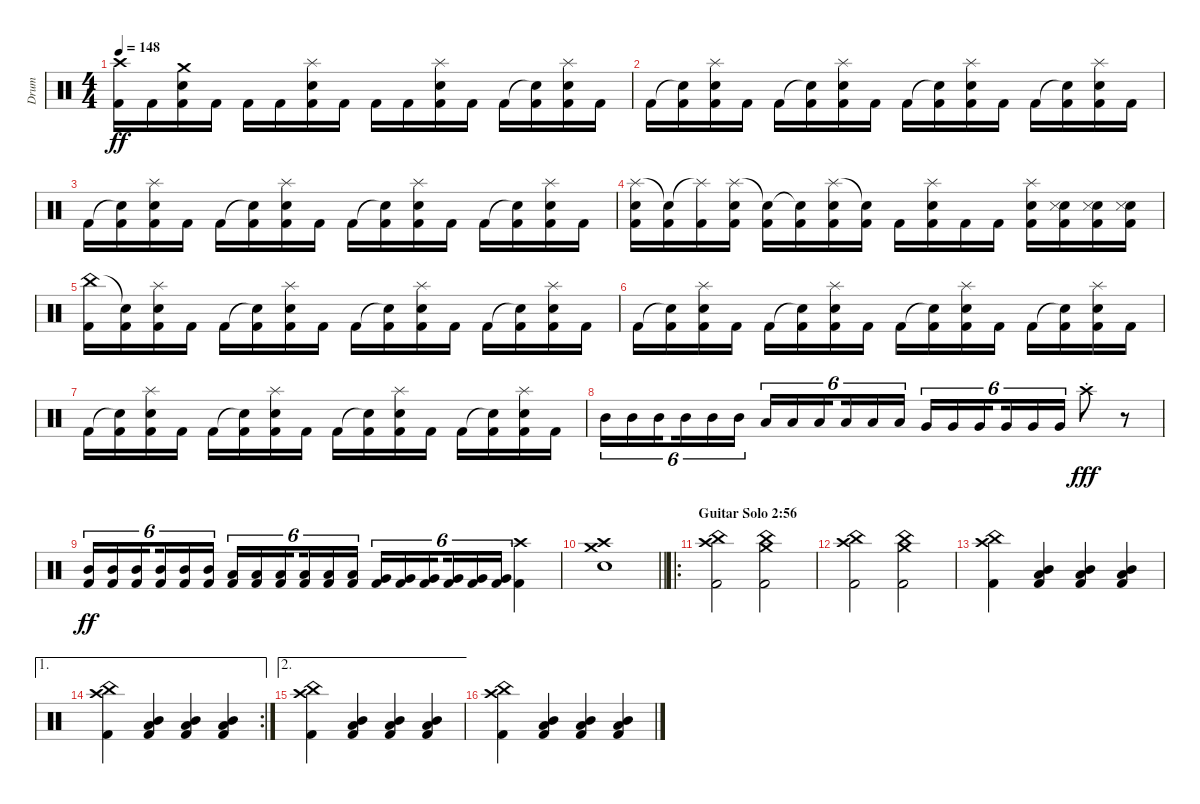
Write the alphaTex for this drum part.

\track ("Drum" "Drum") {instrument percussion}
\staff {score}
\articulation defaults
\ts (4 4)
\tempo 148
\clef neutral
\ks c
("Crash high (hit)" "Kick (hit) 2").16{dy ff} "Kick (hit) 2".16 ("Crash medium (hit)" "Snare (hit) 2" "Kick (hit) 2").16 "Kick (hit) 2".16 "Kick (hit) 2".16 "Kick (hit) 2".16 ("Splash (hit)" "Snare (hit) 2" "Kick (hit) 2").16 "Kick (hit) 2".16 "Kick (hit) 2".16 "Kick (hit) 2".16 ("Splash (hit)" "Snare (hit) 2" "Kick (hit) 2").16 "Kick (hit) 2".16 "Kick (hit) 2".16 ("Snare (hit)"{t} "Kick (hit) 2").16 ("Splash (hit)" "Snare (hit) 2" "Kick (hit) 2").16 "Kick (hit) 2".16 |
"Kick (hit) 2".16 ("Snare (hit)"{t} "Kick (hit) 2").16 ("Splash (hit)" "Snare (hit) 2" "Kick (hit) 2").16 "Kick (hit) 2".16 "Kick (hit) 2".16 ("Snare (hit)"{t} "Kick (hit) 2").16 ("Splash (hit)" "Snare (hit) 2" "Kick (hit) 2").16 "Kick (hit) 2".16 "Kick (hit) 2".16 ("Snare (hit)"{t} "Kick (hit) 2").16 ("Splash (hit)" "Snare (hit) 2" "Kick (hit) 2").16 "Kick (hit) 2".16 "Kick (hit) 2".16 ("Snare (hit)"{t} "Kick (hit) 2").16 ("Splash (hit)" "Snare (hit) 2" "Kick (hit) 2").16 "Kick (hit) 2".16 |
"Kick (hit) 2".16 ("Snare (hit)"{t} "Kick (hit) 2").16 ("Splash (hit)" "Snare (hit) 2" "Kick (hit) 2").16 "Kick (hit) 2".16 "Kick (hit) 2".16 ("Snare (hit)"{t} "Kick (hit) 2").16 ("Splash (hit)" "Snare (hit) 2" "Kick (hit) 2").16 "Kick (hit) 2".16 "Kick (hit) 2".16 ("Snare (hit)"{t} "Kick (hit) 2").16 ("Splash (hit)" "Snare (hit) 2" "Kick (hit) 2").16 "Kick (hit) 2".16 "Kick (hit) 2".16 ("Snare (hit)"{t} "Kick (hit) 2").16 ("Splash (hit)" "Snare (hit) 2" "Kick (hit) 2").16 "Kick (hit) 2".16 |
("Splash (hit)" "Snare (hit) 2" "Kick (hit) 2").16 ("Snare (hit)"{t} "Kick (hit) 2").16 ("Splash (hit)"{t} "Kick (hit) 2").16 ("Splash (hit)" "Snare (hit) 2" "Kick (hit) 2").16 ("Snare (hit)"{t} "Kick (hit) 2").16 ("Snare (hit)"{t} "Kick (hit) 2").16 ("Splash (hit)" "Snare (hit) 2" "Kick (hit) 2").16 ("Snare (hit)"{t} "Kick (hit) 2").16 "Kick (hit) 2".16 ("Splash (hit)" "Snare (hit) 2" "Kick (hit) 2").16 "Kick (hit) 2".16 "Kick (hit) 2".16 ("Splash (hit)" "Snare (hit) 2" "Kick (hit) 2").16 ("Snare (hit) 2" "Metronome (hit)" "Kick (hit) 2").16 ("Snare (hit) 2" "Metronome (hit)" "Kick (hit) 2").16 ("Snare (hit) 2" "Metronome (hit)" "Kick (hit) 2").16 |
("China (hit)" "Kick (hit) 2").16 ("Snare (hit)"{t} "Kick (hit) 2").16 ("Splash (hit)" "Snare (hit) 2" "Kick (hit) 2").16 "Kick (hit) 2".16 "Kick (hit) 2".16 ("Snare (hit)"{t} "Kick (hit) 2").16 ("Splash (hit)" "Snare (hit) 2" "Kick (hit) 2").16 "Kick (hit) 2".16 "Kick (hit) 2".16 ("Snare (hit)"{t} "Kick (hit) 2").16 ("Splash (hit)" "Snare (hit) 2" "Kick (hit) 2").16 "Kick (hit) 2".16 "Kick (hit) 2".16 ("Snare (hit)"{t} "Kick (hit) 2").16 ("Splash (hit)" "Snare (hit) 2" "Kick (hit) 2").16 "Kick (hit) 2".16 |
"Kick (hit) 2".16 ("Snare (hit)"{t} "Kick (hit) 2").16 ("Splash (hit)" "Snare (hit) 2" "Kick (hit) 2").16 "Kick (hit) 2".16 "Kick (hit) 2".16 ("Snare (hit)"{t} "Kick (hit) 2").16 ("Splash (hit)" "Snare (hit) 2" "Kick (hit) 2").16 "Kick (hit) 2".16 "Kick (hit) 2".16 ("Snare (hit)"{t} "Kick (hit) 2").16 ("Splash (hit)" "Snare (hit) 2" "Kick (hit) 2").16 "Kick (hit) 2".16 "Kick (hit) 2".16 ("Snare (hit)"{t} "Kick (hit) 2").16 ("Splash (hit)" "Snare (hit) 2" "Kick (hit) 2").16 "Kick (hit) 2".16 |
"Kick (hit) 2".16 ("Snare (hit)"{t} "Kick (hit) 2").16 ("Splash (hit)" "Snare (hit) 2" "Kick (hit) 2").16 "Kick (hit) 2".16 "Kick (hit) 2".16 ("Snare (hit)"{t} "Kick (hit) 2").16 ("Splash (hit)" "Snare (hit) 2" "Kick (hit) 2").16 "Kick (hit) 2".16 "Kick (hit) 2".16 ("Snare (hit)"{t} "Kick (hit) 2").16 ("Splash (hit)" "Snare (hit) 2" "Kick (hit) 2").16 "Kick (hit) 2".16 "Kick (hit) 2".16 ("Snare (hit)"{t} "Kick (hit) 2").16 ("Splash (hit)" "Snare (hit) 2" "Kick (hit) 2").16 "Kick (hit) 2".16 |
"Mid Tom (hit)".16{tu (6 4)} "Mid Tom (hit)".16{tu (6 4)} "Mid Tom (hit)".16{tu (6 4) beam splitsecondary} "Mid Tom (hit)".16{tu (6 4)} "Mid Tom (hit)".16{tu (6 4)} "Mid Tom (hit)".16{tu (6 4)} "Low Tom (hit)".16{tu (6 4)} "Low Tom (hit)".16{tu (6 4)} "Low Tom (hit)".16{tu (6 4) beam splitsecondary} "Low Tom (hit)".16{tu (6 4)} "Low Tom (hit)".16{tu (6 4)} "Low Tom (hit)".16{tu (6 4)} "Very Low Tom (hit)".16{tu (6 4)} "Very Low Tom (hit)".16{tu (6 4)} "Very Low Tom (hit)".16{tu (6 4) beam splitsecondary} "Very Low Tom (hit)".16{tu (6 4)} "Very Low Tom (hit)".16{tu (6 4)} "Very Low Tom (hit)".16{tu (6 4)} "Crash high (hit)"{st}.8{dy fff} r.8 |
("Kick (hit) 2" "Mid Tom (hit)").16{tu (6 4) dy ff} ("Kick (hit) 2" "Mid Tom (hit)").16{tu (6 4)} ("Kick (hit) 2" "Mid Tom (hit)").16{tu (6 4) beam splitsecondary} ("Kick (hit) 2" "Mid Tom (hit)").16{tu (6 4)} ("Kick (hit) 2" "Mid Tom (hit)").16{tu (6 4)} ("Kick (hit) 2" "Mid Tom (hit)").16{tu (6 4)} ("Kick (hit) 2" "Low Tom (hit)").16{tu (6 4)} ("Kick (hit) 2" "Low Tom (hit)").16{tu (6 4)} ("Kick (hit) 2" "Low Tom (hit)").16{tu (6 4) beam splitsecondary} ("Kick (hit) 2" "Low Tom (hit)").16{tu (6 4)} ("Kick (hit) 2" "Low Tom (hit)").16{tu (6 4)} ("Kick (hit) 2" "Low Tom (hit)").16{tu (6 4)} ("Kick (hit) 2" "Very Low Tom (hit)").16{tu (6 4)} ("Kick (hit) 2" "Very Low Tom (hit)").16{tu (6 4)} ("Kick (hit) 2" "Very Low Tom (hit)").16{tu (6 4) beam splitsecondary} ("Kick (hit) 2" "Very Low Tom (hit)").16{tu (6 4)} ("Kick (hit) 2" "Very Low Tom (hit)").16{tu (6 4)} ("Kick (hit) 2" "Very Low Tom (hit)").16{tu (6 4)} ("Kick (hit) 2" "Crash high (hit)").4 |
\barLineRight lightlight
("Crash medium (hit)" "Crash high (hit)" "Snare (hit) 2").1 |
\ro
\section ("" "Guitar Solo 2:56")
("Crash high (hit)" "China (hit)" "Kick (hit) 2").2 ("Crash medium (hit)" "China (hit)" "Kick (hit) 2").2 |
("Crash high (hit)" "China (hit)" "Kick (hit) 2").2 ("Crash medium (hit)" "China (hit)" "Kick (hit) 2").2 |
("Crash high (hit)" "China (hit)" "Kick (hit) 2").4 ("Low Tom (hit)" "Mid Tom (hit)" "Kick (hit) 2").4 ("Low Tom (hit)" "Mid Tom (hit)" "Kick (hit) 2").4 ("Low Tom (hit)" "Mid Tom (hit)" "Kick (hit) 2").4 |
\ae 1
\rc 2
("Crash high (hit)" "China (hit)" "Kick (hit) 2").4 ("Low Tom (hit)" "Mid Tom (hit)" "Kick (hit) 2").4 ("Low Tom (hit)" "Mid Tom (hit)" "Kick (hit) 2").4 ("Low Tom (hit)" "Mid Tom (hit)" "Kick (hit) 2").4 |
\ae 2
("Crash high (hit)" "China (hit)" "Kick (hit) 2").4 ("Low Tom (hit)" "Mid Tom (hit)" "Kick (hit) 2").4 ("Low Tom (hit)" "Mid Tom (hit)" "Kick (hit) 2").4 ("Low Tom (hit)" "Mid Tom (hit)" "Kick (hit) 2").4 |
("Crash high (hit)" "China (hit)" "Kick (hit) 2").4 ("Low Tom (hit)" "Mid Tom (hit)" "Kick (hit) 2").4 ("Low Tom (hit)" "Mid Tom (hit)" "Kick (hit) 2").4 ("Low Tom (hit)" "Mid Tom (hit)" "Kick (hit) 2").4
